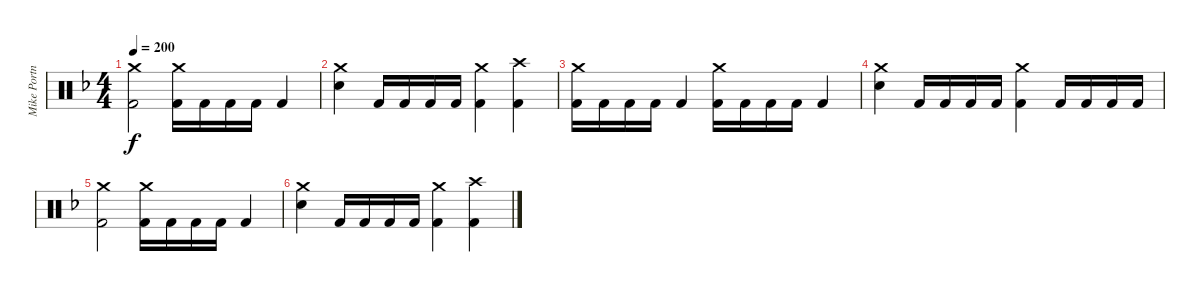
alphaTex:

\track ("Mike Portnoy (Drums)" "Mike Portn") {instrument percussion}
\staff {score}
\articulation defaults
\ts (4 4)
\tempo 200
\clef neutral
\ks f
("Crash medium (hit)" "Kick (hit) 2").2{dy f} ("Crash medium (hit)" "Kick (hit) 2").16 "Kick (hit) 2".16 "Kick (hit) 2".16 "Kick (hit) 2".16 "Kick (hit) 2".4 |
("Crash medium (hit)" "Electric Snare (hit)").4 "Kick (hit) 2".16 "Kick (hit) 2".16 "Kick (hit) 2".16 "Kick (hit) 2".16 ("Crash medium (hit)" "Kick (hit) 2").4 ("Crash high (hit)" "Kick (hit) 2").4 |
("Crash medium (hit)" "Kick (hit) 2").16 "Kick (hit) 2".16 "Kick (hit) 2".16 "Kick (hit) 2".16 "Kick (hit) 2".4 ("Crash medium (hit)" "Kick (hit) 2").16 "Kick (hit) 2".16 "Kick (hit) 2".16 "Kick (hit) 2".16 "Kick (hit) 2".4 |
("Crash medium (hit)" "Electric Snare (hit)").4 "Kick (hit) 2".16 "Kick (hit) 2".16 "Kick (hit) 2".16 "Kick (hit) 2".16 ("Crash medium (hit)" "Kick (hit) 2").4 "Kick (hit) 2".16 "Kick (hit) 2".16 "Kick (hit) 2".16 "Kick (hit) 2".16 |
("Crash medium (hit)" "Kick (hit) 2").2 ("Crash medium (hit)" "Kick (hit) 2").16 "Kick (hit) 2".16 "Kick (hit) 2".16 "Kick (hit) 2".16 "Kick (hit) 2".4 |
("Crash medium (hit)" "Electric Snare (hit)").4 "Kick (hit) 2".16 "Kick (hit) 2".16 "Kick (hit) 2".16 "Kick (hit) 2".16 ("Crash medium (hit)" "Kick (hit) 2").4 ("Crash high (hit)" "Kick (hit) 2").4
